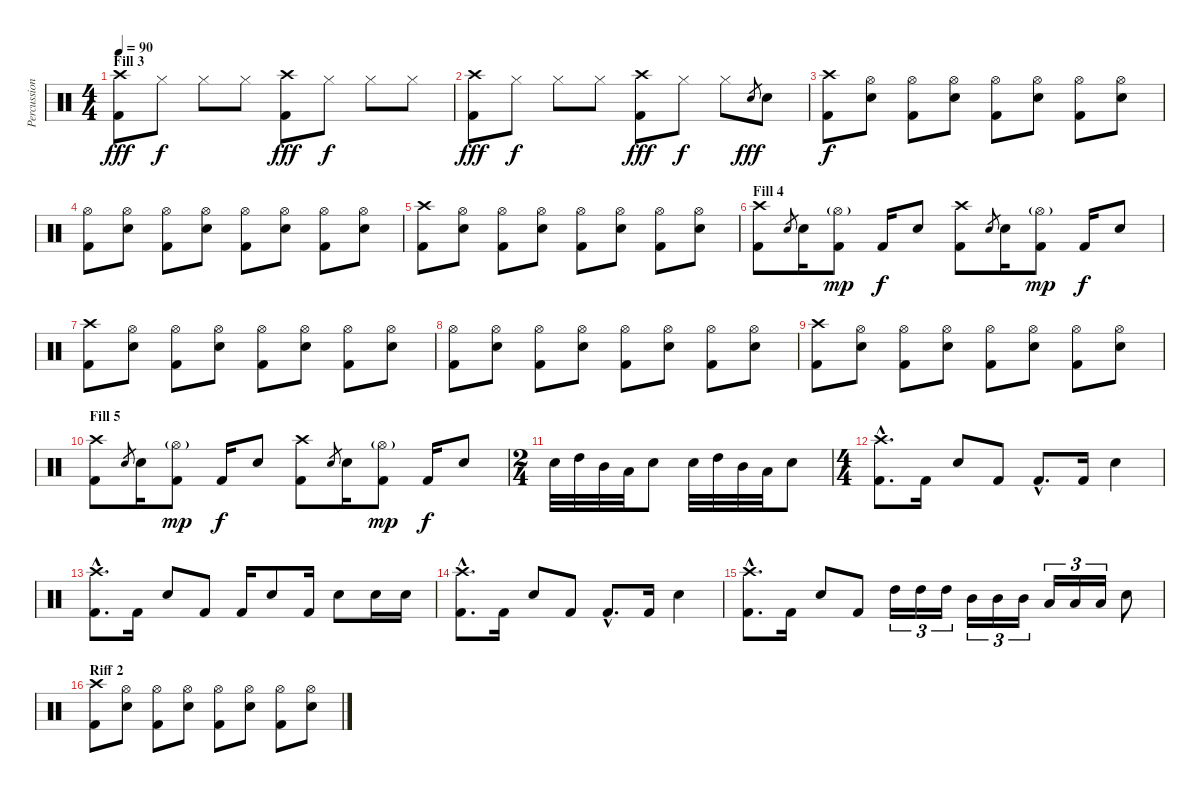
\track ("Percussion" "Percussion") {instrument percussion}
\staff {score}
\articulation defaults
\ts (4 4)
\section ("" "Fill 3")
\tempo 90
\clef neutral
\ks c
("Crash high (hit)" "Kick (hit) 2").8{dy fff} "Hi-Hat (closed)".8{dy f} "Hi-Hat (closed)".8 "Hi-Hat (closed)".8 ("Crash high (hit)" "Kick (hit) 2").8{dy fff} "Hi-Hat (closed)".8{dy f} "Hi-Hat (closed)".8 "Hi-Hat (closed)".8 |
("Crash high (hit)" "Kick (hit) 2").8{dy fff} "Hi-Hat (closed)".8{dy f} "Hi-Hat (closed)".8 "Hi-Hat (closed)".8 ("Crash high (hit)" "Kick (hit) 2").8{dy fff} "Hi-Hat (closed)".8{dy f} "Hi-Hat (closed)".8 "Electric Snare (hit)"{h}.8{gr dy fff} "Electric Snare (hit)".8 |
("Crash high (hit)" "Kick (hit) 2").8{dy f} ("Hi-Hat (open)" "Electric Snare (hit)").8 ("Hi-Hat (open)" "Kick (hit) 2").8 ("Hi-Hat (open)" "Electric Snare (hit)").8 ("Hi-Hat (open)" "Kick (hit) 2").8 ("Hi-Hat (open)" "Electric Snare (hit)").8 ("Hi-Hat (open)" "Kick (hit) 2").8 ("Hi-Hat (open)" "Electric Snare (hit)").8 |
("Hi-Hat (open)" "Kick (hit) 2").8 ("Hi-Hat (open)" "Electric Snare (hit)").8 ("Hi-Hat (open)" "Kick (hit) 2").8 ("Hi-Hat (open)" "Electric Snare (hit)").8 ("Hi-Hat (open)" "Kick (hit) 2").8 ("Hi-Hat (open)" "Electric Snare (hit)").8 ("Hi-Hat (open)" "Kick (hit) 2").8 ("Hi-Hat (open)" "Electric Snare (hit)").8 |
("Crash high (hit)" "Kick (hit) 2").8 ("Hi-Hat (open)" "Electric Snare (hit)").8 ("Hi-Hat (open)" "Kick (hit) 2").8 ("Hi-Hat (open)" "Electric Snare (hit)").8 ("Hi-Hat (open)" "Kick (hit) 2").8 ("Hi-Hat (open)" "Electric Snare (hit)").8 ("Hi-Hat (open)" "Kick (hit) 2").8 ("Hi-Hat (open)" "Electric Snare (hit)").8 |
\section ("" "Fill 4")
("Crash high (hit)" "Kick (hit) 2").8 "Electric Snare (hit)"{h}.8{gr} "Electric Snare (hit)".16 ("Hi-Hat (open)"{g} "Kick (hit) 2").8{dy mp} "Kick (hit) 2".16{dy f} "Electric Snare (hit)".8 ("Crash high (hit)" "Kick (hit) 2").8 "Electric Snare (hit)"{h}.8{gr} "Electric Snare (hit)".16 ("Hi-Hat (open)"{g} "Kick (hit) 2").8{dy mp} "Kick (hit) 2".16{dy f} "Electric Snare (hit)".8 |
("Crash high (hit)" "Kick (hit) 2").8 ("Hi-Hat (open)" "Electric Snare (hit)").8 ("Hi-Hat (open)" "Kick (hit) 2").8 ("Hi-Hat (open)" "Electric Snare (hit)").8 ("Hi-Hat (open)" "Kick (hit) 2").8 ("Hi-Hat (open)" "Electric Snare (hit)").8 ("Hi-Hat (open)" "Kick (hit) 2").8 ("Hi-Hat (open)" "Electric Snare (hit)").8 |
("Hi-Hat (open)" "Kick (hit) 2").8 ("Hi-Hat (open)" "Electric Snare (hit)").8 ("Hi-Hat (open)" "Kick (hit) 2").8 ("Hi-Hat (open)" "Electric Snare (hit)").8 ("Hi-Hat (open)" "Kick (hit) 2").8 ("Hi-Hat (open)" "Electric Snare (hit)").8 ("Hi-Hat (open)" "Kick (hit) 2").8 ("Hi-Hat (open)" "Electric Snare (hit)").8 |
("Crash high (hit)" "Kick (hit) 2").8 ("Hi-Hat (open)" "Electric Snare (hit)").8 ("Hi-Hat (open)" "Kick (hit) 2").8 ("Hi-Hat (open)" "Electric Snare (hit)").8 ("Hi-Hat (open)" "Kick (hit) 2").8 ("Hi-Hat (open)" "Electric Snare (hit)").8 ("Hi-Hat (open)" "Kick (hit) 2").8 ("Hi-Hat (open)" "Electric Snare (hit)").8 |
\section ("" "Fill 5")
("Crash high (hit)" "Kick (hit) 2").8 "Electric Snare (hit)"{h}.8{gr} "Electric Snare (hit)".16 ("Hi-Hat (open)"{g} "Kick (hit) 2").8{dy mp} "Kick (hit) 2".16{dy f} "Electric Snare (hit)".8 ("Crash high (hit)" "Kick (hit) 2").8 "Electric Snare (hit)"{h}.8{gr} "Electric Snare (hit)".16 ("Hi-Hat (open)"{g} "Kick (hit) 2").8{dy mp} "Kick (hit) 2".16{dy f} "Electric Snare (hit)".8 |
\ts (2 4)
"Electric Snare (hit)".32 "High Tom (hit)".32 "Mid Tom (hit)".32 "Low Tom (hit)".32 "Electric Snare (hit)".8 "Electric Snare (hit)".32 "High Tom (hit)".32 "Mid Tom (hit)".32 "Low Tom (hit)".32 "Electric Snare (hit)".8 |
\ts (4 4)
("Crash high (hit)"{hac} "Kick (hit) 2"{hac}).8{d} "Kick (hit) 2".16 "Electric Snare (hit)".8 "Kick (hit) 2".8 "Kick (hit) 2"{hac}.8{d} "Kick (hit) 2".16 "Electric Snare (hit)".4 |
("Crash high (hit)"{hac} "Kick (hit) 2"{hac}).8{d} "Kick (hit) 2".16 "Electric Snare (hit)".8 "Kick (hit) 2".8 "Kick (hit) 2".16 "Electric Snare (hit)".8 "Kick (hit) 2".16 "Electric Snare (hit)".8 "Electric Snare (hit)".16 "Electric Snare (hit)".16 |
("Crash high (hit)"{hac} "Kick (hit) 2"{hac}).8{d} "Kick (hit) 2".16 "Electric Snare (hit)".8 "Kick (hit) 2".8 "Kick (hit) 2"{hac}.8{d} "Kick (hit) 2".16 "Electric Snare (hit)".4 |
("Crash high (hit)"{hac} "Kick (hit) 2"{hac}).8{d} "Kick (hit) 2".16 "Electric Snare (hit)".8 "Kick (hit) 2".8 "High Tom (hit)".16{tu (3 2)} "High Tom (hit)".16{tu (3 2)} "High Tom (hit)".16{tu (3 2)} "Mid Tom (hit)".16{tu (3 2)} "Mid Tom (hit)".16{tu (3 2)} "Mid Tom (hit)".16{tu (3 2)} "Low Tom (hit)".16{tu (3 2)} "Low Tom (hit)".16{tu (3 2)} "Low Tom (hit)".16{tu (3 2)} "Electric Snare (hit)".8 |
\section ("" "Riff 2")
("Crash high (hit)" "Kick (hit) 2").8 ("Hi-Hat (open)" "Electric Snare (hit)").8 ("Hi-Hat (open)" "Kick (hit) 2").8 ("Hi-Hat (open)" "Electric Snare (hit)").8 ("Hi-Hat (open)" "Kick (hit) 2").8 ("Hi-Hat (open)" "Electric Snare (hit)").8 ("Hi-Hat (open)" "Kick (hit) 2").8 ("Hi-Hat (open)" "Electric Snare (hit)").8
